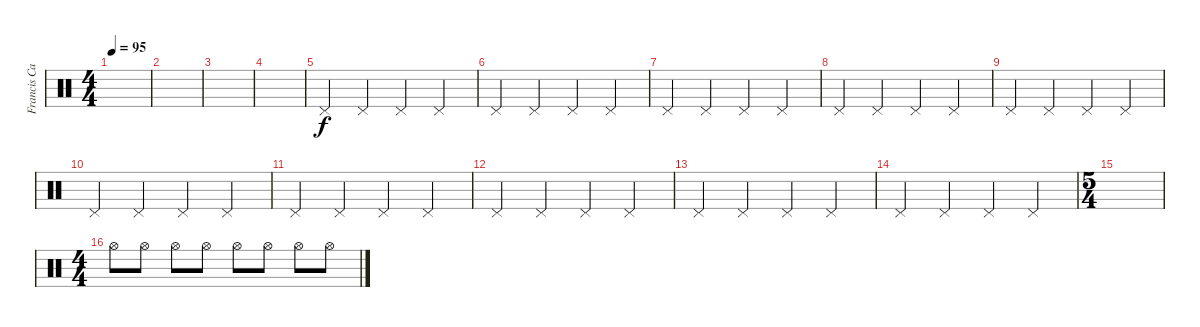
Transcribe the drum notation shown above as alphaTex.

\track ("Francis Cassol 2" "Francis Ca") {instrument percussion}
\staff {score}
\articulation defaults
\ts (4 4)
\tempo 95
\clef neutral
\ks c
|
|
|
|
"Pedal Hi-Hat (hit)".4 "Pedal Hi-Hat (hit)".4 "Pedal Hi-Hat (hit)".4 "Pedal Hi-Hat (hit)".4 |
"Pedal Hi-Hat (hit)".4 "Pedal Hi-Hat (hit)".4 "Pedal Hi-Hat (hit)".4 "Pedal Hi-Hat (hit)".4 |
"Pedal Hi-Hat (hit)".4 "Pedal Hi-Hat (hit)".4 "Pedal Hi-Hat (hit)".4 "Pedal Hi-Hat (hit)".4 |
"Pedal Hi-Hat (hit)".4 "Pedal Hi-Hat (hit)".4 "Pedal Hi-Hat (hit)".4 "Pedal Hi-Hat (hit)".4 |
"Pedal Hi-Hat (hit)".4 "Pedal Hi-Hat (hit)".4 "Pedal Hi-Hat (hit)".4 "Pedal Hi-Hat (hit)".4 |
"Pedal Hi-Hat (hit)".4 "Pedal Hi-Hat (hit)".4 "Pedal Hi-Hat (hit)".4 "Pedal Hi-Hat (hit)".4 |
"Pedal Hi-Hat (hit)".4 "Pedal Hi-Hat (hit)".4 "Pedal Hi-Hat (hit)".4 "Pedal Hi-Hat (hit)".4 |
"Pedal Hi-Hat (hit)".4 "Pedal Hi-Hat (hit)".4 "Pedal Hi-Hat (hit)".4 "Pedal Hi-Hat (hit)".4 |
"Pedal Hi-Hat (hit)".4 "Pedal Hi-Hat (hit)".4 "Pedal Hi-Hat (hit)".4 "Pedal Hi-Hat (hit)".4 |
"Pedal Hi-Hat (hit)".4 "Pedal Hi-Hat (hit)".4 "Pedal Hi-Hat (hit)".4 "Pedal Hi-Hat (hit)".4 |
\ts (5 4)
|
\ts (4 4)
"Hi-Hat (open)".8 "Hi-Hat (open)".8 "Hi-Hat (open)".8 "Hi-Hat (open)".8 "Hi-Hat (open)".8 "Hi-Hat (open)".8 "Hi-Hat (open)".8 "Hi-Hat (open)".8
